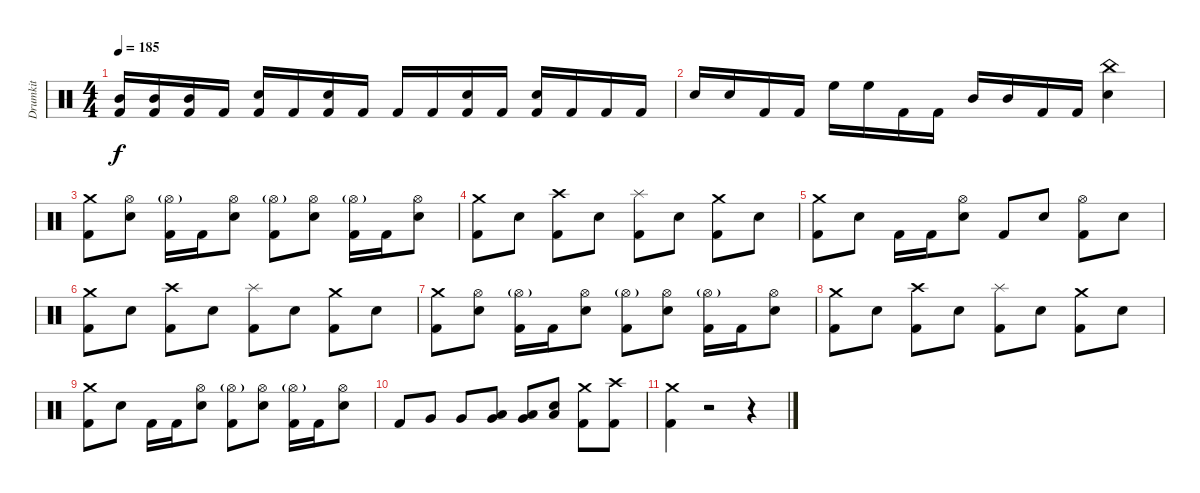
\track ("Drumkit" "Drumkit") {instrument percussion}
\staff {score}
\articulation defaults
\ts (4 4)
\tempo 185
\clef neutral
\ks c
("Mid Tom (hit)" "Kick (hit) 2").16{dy f} ("Mid Tom (hit)" "Kick (hit) 2").16 ("Mid Tom (hit)" "Kick (hit) 2").16 "Kick (hit) 2".16 ("Snare (hit) 2" "Kick (hit) 2").16 "Kick (hit) 2".16 ("Snare (hit) 2" "Kick (hit) 2").16 "Kick (hit) 2".16 "Kick (hit) 2".16 "Kick (hit) 2".16 ("Snare (hit) 2" "Kick (hit) 2").16 "Kick (hit) 2".16 ("Snare (hit) 2" "Kick (hit) 2").16 "Kick (hit) 2".16 "Kick (hit) 2".16 "Kick (hit) 2".16 |
"Snare (hit) 2".16 "Snare (hit) 2".16 "Kick (hit) 2".16 "Kick (hit) 2".16 "High Floor Tom (hit)".16 "High Floor Tom (hit)".16 "Kick (hit) 2".16 "Kick (hit) 2".16 "Mid Tom (hit)".16 "Mid Tom (hit)".16 "Kick (hit) 2".16 "Kick (hit) 2".16 ("China (hit)" "Snare (hit) 2").4 |
("Crash medium (hit)" "Kick (hit) 2").8 ("Hi-Hat (open)" "Snare (hit) 2").8 ("Hi-Hat (open)"{g} "Kick (hit) 2").16 "Kick (hit) 2".16 ("Hi-Hat (open)" "Snare (hit) 2").8 ("Hi-Hat (open)"{g} "Kick (hit) 2").8 ("Hi-Hat (open)" "Snare (hit) 2").8 ("Hi-Hat (open)"{g} "Kick (hit) 2").16 "Kick (hit) 2".16 ("Hi-Hat (open)" "Snare (hit) 2").8 |
("Crash medium (hit)" "Kick (hit) 2").8 "Snare (hit) 2".8 ("Crash high (hit)" "Kick (hit) 2").8 "Snare (hit) 2".8 ("Splash (hit)" "Kick (hit) 2").8 "Snare (hit) 2".8 ("Crash medium (hit)" "Kick (hit) 2").8 "Snare (hit) 2".8 |
("Crash medium (hit)" "Kick (hit) 2").8 "Snare (hit) 2".8 "Kick (hit) 2".16 "Kick (hit) 2".16 ("Hi-Hat (open)" "Snare (hit) 2").8 "Kick (hit) 2".8 "Snare (hit) 2".8 ("Hi-Hat (open)" "Kick (hit) 2").8 "Snare (hit) 2".8 |
("Crash medium (hit)" "Kick (hit) 2").8 "Snare (hit) 2".8 ("Crash high (hit)" "Kick (hit) 2").8 "Snare (hit) 2".8 ("Splash (hit)" "Kick (hit) 2").8 "Snare (hit) 2".8 ("Crash medium (hit)" "Kick (hit) 2").8 "Snare (hit) 2".8 |
("Crash medium (hit)" "Kick (hit) 2").8 ("Hi-Hat (open)" "Snare (hit) 2").8 ("Hi-Hat (open)"{g} "Kick (hit) 2").16 "Kick (hit) 2".16 ("Hi-Hat (open)" "Snare (hit) 2").8 ("Hi-Hat (open)"{g} "Kick (hit) 2").8 ("Hi-Hat (open)" "Snare (hit) 2").8 ("Hi-Hat (open)"{g} "Kick (hit) 2").16 "Kick (hit) 2".16 ("Hi-Hat (open)" "Snare (hit) 2").8 |
("Crash medium (hit)" "Kick (hit) 2").8 "Snare (hit) 2".8 ("Crash high (hit)" "Kick (hit) 2").8 "Snare (hit) 2".8 ("Splash (hit)" "Kick (hit) 2").8 "Snare (hit) 2".8 ("Crash medium (hit)" "Kick (hit) 2").8 "Snare (hit) 2".8 |
("Crash medium (hit)" "Kick (hit) 2").8 "Snare (hit) 2".8 "Kick (hit) 2".16 "Kick (hit) 2".16 ("Hi-Hat (open)" "Snare (hit) 2").8 ("Hi-Hat (open)"{g} "Kick (hit) 2").8 ("Hi-Hat (open)" "Snare (hit) 2").8 ("Hi-Hat (open)"{g} "Kick (hit) 2").16 "Kick (hit) 2".16 ("Hi-Hat (open)" "Snare (hit) 2").8 |
"Kick (hit) 2".8 "Very Low Tom (hit)".8 "Very Low Tom (hit)".8 ("Low Floor Tom (hit)" "Very Low Tom (hit)").8 ("Low Floor Tom (hit)" "Very Low Tom (hit)").8 ("Low Floor Tom (hit)" "Snare (hit) 2").8 ("Crash medium (hit)" "Kick (hit) 2").8 ("Crash high (hit)" "Kick (hit) 2").8 |
("Crash medium (hit)" "Kick (hit) 2").4 r.2 r.4
